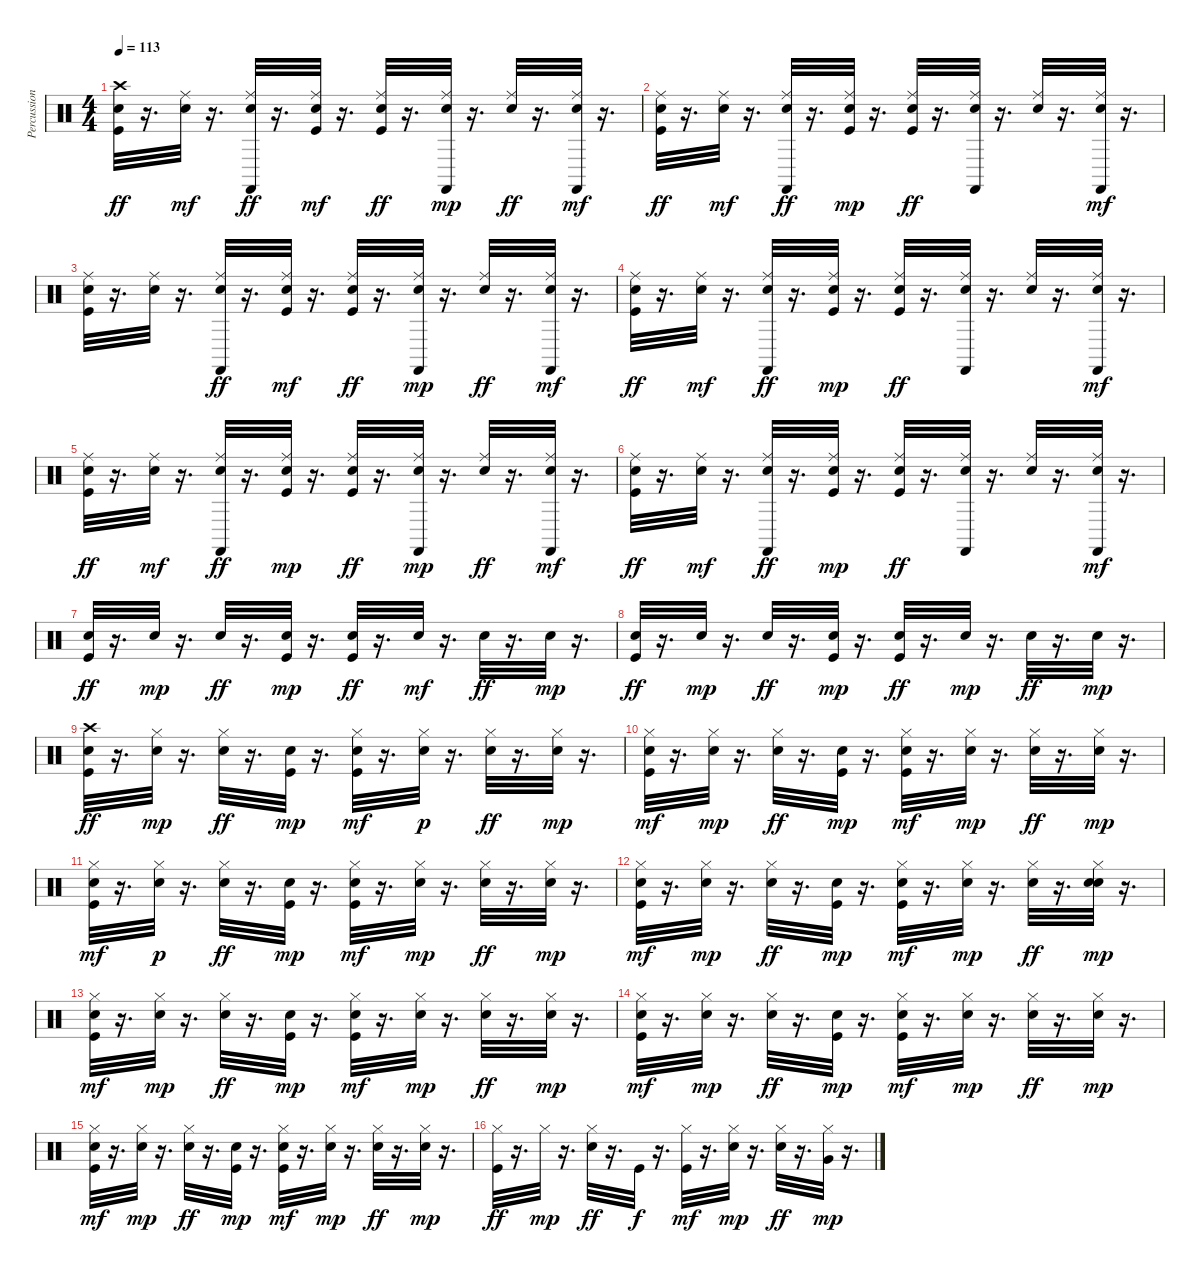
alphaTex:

\track ("Percussions" "Percussion") {instrument percussion}
\staff {score}
\articulation defaults
\ts (4 4)
\tempo 113
\clef neutral
\ks c
("Kick (hit)" "Snare (hit) 2" "Crash high (hit)").32{dy ff} r.16{d} ("Snare (hit) 2" "Ride (middle)").32{dy mf} r.16{d} ("Hand Clap (hit)" "Ride (middle)" "Castanets (hit)").32{dy ff} r.16{d} ("Kick (hit)" "Snare (hit) 2" "Ride (middle)").32{dy mf} r.16{d} ("Kick (hit)" "Snare (hit) 2" "Ride (middle)").32{dy ff} r.16{d} ("Snare (hit) 2" "Ride (middle)" "Castanets (hit)").32{dy mp} r.16{d} ("Hand Clap (hit)" "Ride (middle)").32{dy ff} r.16{d} ("Snare (hit) 2" "Ride (middle)" "Castanets (hit)").32{dy mf} r.16{d} |
("Kick (hit)" "Snare (hit) 2" "Ride (middle)").32{dy ff} r.16{d} ("Snare (hit) 2" "Ride (middle)").32{dy mf} r.16{d} ("Hand Clap (hit)" "Ride (middle)" "Castanets (hit)").32{dy ff} r.16{d} ("Kick (hit)" "Snare (hit) 2" "Ride (middle)").32{dy mp} r.16{d} ("Kick (hit)" "Snare (hit) 2" "Ride (middle)").32{dy ff} r.16{d} ("Snare (hit) 2" "Ride (middle)" "Castanets (hit)").32 r.16{d} ("Hand Clap (hit)" "Ride (middle)").32 r.16{d} ("Snare (hit) 2" "Ride (middle)" "Castanets (hit)").32{dy mf} r.16{d} |
("Kick (hit)" "Snare (hit) 2" "Ride (middle)").32 r.16{d} ("Snare (hit) 2" "Ride (middle)").32 r.16{d} ("Hand Clap (hit)" "Ride (middle)" "Castanets (hit)").32{dy ff} r.16{d} ("Kick (hit)" "Snare (hit) 2" "Ride (middle)").32{dy mf} r.16{d} ("Kick (hit)" "Snare (hit) 2" "Ride (middle)").32{dy ff} r.16{d} ("Snare (hit) 2" "Ride (middle)" "Castanets (hit)").32{dy mp} r.16{d} ("Hand Clap (hit)" "Ride (middle)").32{dy ff} r.16{d} ("Snare (hit) 2" "Ride (middle)" "Castanets (hit)").32{dy mf} r.16{d} |
("Kick (hit)" "Snare (hit) 2" "Ride (middle)").32{dy ff} r.16{d} ("Snare (hit) 2" "Ride (middle)").32{dy mf} r.16{d} ("Hand Clap (hit)" "Ride (middle)" "Castanets (hit)").32{dy ff} r.16{d} ("Kick (hit)" "Snare (hit) 2" "Ride (middle)").32{dy mp} r.16{d} ("Kick (hit)" "Snare (hit) 2" "Ride (middle)").32{dy ff} r.16{d} ("Snare (hit) 2" "Ride (middle)" "Castanets (hit)").32 r.16{d} ("Hand Clap (hit)" "Ride (middle)").32 r.16{d} ("Snare (hit) 2" "Ride (middle)" "Castanets (hit)").32{dy mf} r.16{d} |
("Kick (hit)" "Snare (hit) 2" "Ride (middle)").32{dy ff} r.16{d} ("Snare (hit) 2" "Ride (middle)").32{dy mf} r.16{d} ("Hand Clap (hit)" "Ride (middle)" "Castanets (hit)").32{dy ff} r.16{d} ("Kick (hit)" "Snare (hit) 2" "Ride (middle)").32{dy mp} r.16{d} ("Kick (hit)" "Snare (hit) 2" "Ride (middle)").32{dy ff} r.16{d} ("Snare (hit) 2" "Ride (middle)" "Castanets (hit)").32{dy mp} r.16{d} ("Hand Clap (hit)" "Ride (middle)").32{dy ff} r.16{d} ("Snare (hit) 2" "Ride (middle)" "Castanets (hit)").32{dy mf} r.16{d} |
("Kick (hit)" "Snare (hit) 2" "Ride (middle)").32{dy ff} r.16{d} ("Snare (hit) 2" "Ride (middle)").32{dy mf} r.16{d} ("Hand Clap (hit)" "Ride (middle)" "Castanets (hit)").32{dy ff} r.16{d} ("Kick (hit)" "Snare (hit) 2" "Ride (middle)").32{dy mp} r.16{d} ("Kick (hit)" "Snare (hit) 2" "Ride (middle)").32{dy ff} r.16{d} ("Snare (hit) 2" "Ride (middle)" "Castanets (hit)").32 r.16{d} ("Hand Clap (hit)" "Ride (middle)").32 r.16{d} ("Snare (hit) 2" "Ride (middle)" "Castanets (hit)").32{dy mf} r.16{d} |
("Kick (hit)" "Snare (hit) 2").32{dy ff} r.16{d} "Snare (hit) 2".32{dy mp} r.16{d} "Hand Clap (hit)".32{dy ff} r.16{d} ("Kick (hit)" "Snare (hit) 2").32{dy mp} r.16{d} ("Kick (hit)" "Snare (hit) 2").32{dy ff} r.16{d} "Snare (hit) 2".32{dy mf} r.16{d} "Hand Clap (hit)".32{dy ff} r.16{d} "Snare (hit) 2".32{dy mp} r.16{d} |
("Kick (hit)" "Snare (hit) 2").32{dy ff} r.16{d} "Snare (hit) 2".32{dy mp} r.16{d} "Hand Clap (hit)".32{dy ff} r.16{d} ("Kick (hit)" "Snare (hit) 2").32{dy mp} r.16{d} ("Kick (hit)" "Snare (hit) 2").32{dy ff} r.16{d} "Snare (hit) 2".32{dy mp} r.16{d} "Hand Clap (hit)".32{dy ff} r.16{d} "Snare (hit) 2".32{dy mp} r.16{d} |
("Kick (hit)" "Snare (hit) 2" "Crash high (hit)").32{dy ff} r.16{d} ("Snare (hit) 2" "Hi-Hat (closed)").32{dy mp} r.16{d} ("Hand Clap (hit)" "Hi-Hat (closed)").32{dy ff} r.16{d} ("Kick (hit)" "Snare (hit) 2").32{dy mp} r.16{d} ("Kick (hit)" "Snare (hit) 2" "Hi-Hat (closed)").32{dy mf} r.16{d} ("Snare (hit) 2" "Hi-Hat (closed)").32{dy p} r.16{d} ("Hand Clap (hit)" "Hi-Hat (closed)").32{dy ff} r.16{d} ("Snare (hit) 2" "Hi-Hat (closed)").32{dy mp} r.16{d} |
("Kick (hit)" "Snare (hit) 2" "Hi-Hat (closed)").32{dy mf} r.16{d} ("Snare (hit) 2" "Hi-Hat (closed)").32{dy mp} r.16{d} ("Hand Clap (hit)" "Hi-Hat (closed)").32{dy ff} r.16{d} ("Kick (hit)" "Snare (hit) 2").32{dy mp} r.16{d} ("Kick (hit)" "Snare (hit) 2" "Hi-Hat (closed)").32{dy mf} r.16{d} ("Snare (hit) 2" "Hi-Hat (closed)").32{dy mp} r.16{d} ("Hand Clap (hit)" "Hi-Hat (closed)").32{dy ff} r.16{d} ("Snare (hit) 2" "Hi-Hat (closed)").32{dy mp} r.16{d} |
("Kick (hit)" "Snare (hit) 2" "Hi-Hat (closed)").32{dy mf} r.16{d} ("Snare (hit) 2" "Hi-Hat (closed)").32{dy p} r.16{d} ("Hand Clap (hit)" "Hi-Hat (closed)").32{dy ff} r.16{d} ("Kick (hit)" "Snare (hit) 2").32{dy mp} r.16{d} ("Kick (hit)" "Snare (hit) 2" "Hi-Hat (closed)").32{dy mf} r.16{d} ("Snare (hit) 2" "Hi-Hat (closed)").32{dy mp} r.16{d} ("Hand Clap (hit)" "Hi-Hat (closed)").32{dy ff} r.16{d} ("Snare (hit) 2" "Hi-Hat (closed)").32{dy mp} r.16{d} |
("Kick (hit)" "Snare (hit) 2" "Hi-Hat (closed)").32{dy mf} r.16{d} ("Snare (hit) 2" "Hi-Hat (closed)").32{dy mp} r.16{d} ("Hand Clap (hit)" "Hi-Hat (closed)").32{dy ff} r.16{d} ("Kick (hit)" "Snare (hit) 2").32{dy mp} r.16{d} ("Kick (hit)" "Snare (hit) 2" "Hi-Hat (closed)").32{dy mf} r.16{d} ("Snare (hit) 2" "Hi-Hat (closed)").32{dy mp} r.16{d} ("Hand Clap (hit)" "Hi-Hat (closed)").32{dy ff} r.16{d} ("Snare (hit) 2" "Hand Clap (hit)" "Hi-Hat (closed)").32{dy mp} r.16{d} |
("Kick (hit)" "Snare (hit) 2" "Hi-Hat (closed)").32{dy mf} r.16{d} ("Snare (hit) 2" "Hi-Hat (closed)").32{dy mp} r.16{d} ("Hand Clap (hit)" "Hi-Hat (closed)").32{dy ff} r.16{d} ("Kick (hit)" "Snare (hit) 2").32{dy mp} r.16{d} ("Kick (hit)" "Snare (hit) 2" "Hi-Hat (closed)").32{dy mf} r.16{d} ("Snare (hit) 2" "Hi-Hat (closed)").32{dy mp} r.16{d} ("Hand Clap (hit)" "Hi-Hat (closed)").32{dy ff} r.16{d} ("Snare (hit) 2" "Hi-Hat (closed)").32{dy mp} r.16{d} |
("Kick (hit)" "Snare (hit) 2" "Hi-Hat (closed)").32{dy mf} r.16{d} ("Snare (hit) 2" "Hi-Hat (closed)").32{dy mp} r.16{d} ("Hand Clap (hit)" "Hi-Hat (closed)").32{dy ff} r.16{d} ("Kick (hit)" "Snare (hit) 2").32{dy mp} r.16{d} ("Kick (hit)" "Snare (hit) 2" "Hi-Hat (closed)").32{dy mf} r.16{d} ("Snare (hit) 2" "Hi-Hat (closed)").32{dy mp} r.16{d} ("Hand Clap (hit)" "Hi-Hat (closed)").32{dy ff} r.16{d} ("Snare (hit) 2" "Hi-Hat (closed)").32{dy mp} r.16{d} |
("Kick (hit)" "Snare (hit) 2" "Hi-Hat (closed)").32{dy mf} r.16{d} ("Snare (hit) 2" "Hi-Hat (closed)").32{dy mp} r.16{d} ("Hand Clap (hit)" "Hi-Hat (closed)").32{dy ff} r.16{d} ("Kick (hit)" "Snare (hit) 2").32{dy mp} r.16{d} ("Kick (hit)" "Snare (hit) 2" "Hi-Hat (closed)").32{dy mf} r.16{d} ("Snare (hit) 2" "Hi-Hat (closed)").32{dy mp} r.16{d} ("Hand Clap (hit)" "Hi-Hat (closed)").32{dy ff} r.16{d} ("Snare (hit) 2" "Hi-Hat (closed)").32{dy mp} r.16{d} |
("Kick (hit)" "Hi-Hat (closed)").32{dy ff} r.16{d} "Hi-Hat (closed)".32{dy mp} r.16{d} ("Hand Clap (hit)" "Hi-Hat (closed)").32{dy ff} r.16{d} "Kick (hit)".32{dy f} r.16{d} ("Kick (hit)" "Hi-Hat (closed)").32{dy mf} r.16{d} ("Hand Clap (hit)" "Hi-Hat (closed)").32{dy mp} r.16{d} ("Hand Clap (hit)" "Hi-Hat (closed)").32{dy ff} r.16{d} ("Hi-Hat (closed)" "Very Low Tom (hit)").32{dy mp} r.16{d}
